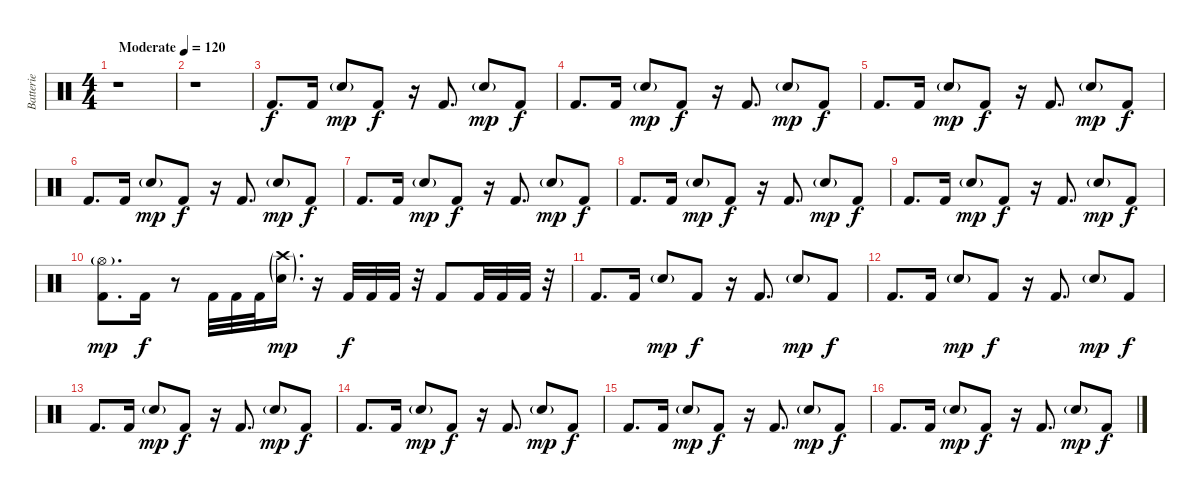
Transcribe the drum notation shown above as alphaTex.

\track ("Batterie" "Batterie") {instrument percussion}
\staff {score}
\articulation defaults
\ts (4 4)
\tempo (120 "Moderate")
\clef neutral
\ks c
r.1{dy f} |
r.1 |
"Kick (hit) 2".8{d} "Kick (hit) 2".16 "Electric Snare (hit)"{g}.8{dy mp} "Kick (hit) 2".8{dy f} r.16 "Kick (hit) 2".8{d} "Electric Snare (hit)"{g}.8{dy mp} "Kick (hit) 2".8{dy f} |
"Kick (hit) 2".8{d} "Kick (hit) 2".16 "Electric Snare (hit)"{g}.8{dy mp} "Kick (hit) 2".8{dy f} r.16 "Kick (hit) 2".8{d} "Electric Snare (hit)"{g}.8{dy mp} "Kick (hit) 2".8{dy f} |
"Kick (hit) 2".8{d} "Kick (hit) 2".16 "Electric Snare (hit)"{g}.8{dy mp} "Kick (hit) 2".8{dy f} r.16 "Kick (hit) 2".8{d} "Electric Snare (hit)"{g}.8{dy mp} "Kick (hit) 2".8{dy f} |
"Kick (hit) 2".8{d} "Kick (hit) 2".16 "Electric Snare (hit)"{g}.8{dy mp} "Kick (hit) 2".8{dy f} r.16 "Kick (hit) 2".8{d} "Electric Snare (hit)"{g}.8{dy mp} "Kick (hit) 2".8{dy f} |
"Kick (hit) 2".8{d} "Kick (hit) 2".16 "Electric Snare (hit)"{g}.8{dy mp} "Kick (hit) 2".8{dy f} r.16 "Kick (hit) 2".8{d} "Electric Snare (hit)"{g}.8{dy mp} "Kick (hit) 2".8{dy f} |
"Kick (hit) 2".8{d} "Kick (hit) 2".16 "Electric Snare (hit)"{g}.8{dy mp} "Kick (hit) 2".8{dy f} r.16 "Kick (hit) 2".8{d} "Electric Snare (hit)"{g}.8{dy mp} "Kick (hit) 2".8{dy f} |
"Kick (hit) 2".8{d} "Kick (hit) 2".16 "Electric Snare (hit)"{g}.8{dy mp} "Kick (hit) 2".8{dy f} r.16 "Kick (hit) 2".8{d} "Electric Snare (hit)"{g}.8{dy mp} "Kick (hit) 2".8{dy f} |
("Hi-Hat (open)"{g} "Kick (hit) 2").8{d dy mp} "Kick (hit) 2".16{dy f} r.8 "Kick (hit) 2".32 "Kick (hit) 2".32 "Kick (hit) 2".32 ("Crash high (hit)"{g} "Electric Snare (hit)"{g}).16{d dy mp} r.16 "Kick (hit) 2".32{dy f} "Kick (hit) 2".32 "Kick (hit) 2".32 r.32 "Kick (hit) 2".8 "Kick (hit) 2".32 "Kick (hit) 2".32 "Kick (hit) 2".32 r.32 |
"Kick (hit) 2".8{d} "Kick (hit) 2".16 "Electric Snare (hit)"{g}.8{dy mp} "Kick (hit) 2".8{dy f} r.16 "Kick (hit) 2".8{d} "Electric Snare (hit)"{g}.8{dy mp} "Kick (hit) 2".8{dy f} |
"Kick (hit) 2".8{d} "Kick (hit) 2".16 "Electric Snare (hit)"{g}.8{dy mp} "Kick (hit) 2".8{dy f} r.16 "Kick (hit) 2".8{d} "Electric Snare (hit)"{g}.8{dy mp} "Kick (hit) 2".8{dy f} |
"Kick (hit) 2".8{d} "Kick (hit) 2".16 "Electric Snare (hit)"{g}.8{dy mp} "Kick (hit) 2".8{dy f} r.16 "Kick (hit) 2".8{d} "Electric Snare (hit)"{g}.8{dy mp} "Kick (hit) 2".8{dy f} |
"Kick (hit) 2".8{d} "Kick (hit) 2".16 "Electric Snare (hit)"{g}.8{dy mp} "Kick (hit) 2".8{dy f} r.16 "Kick (hit) 2".8{d} "Electric Snare (hit)"{g}.8{dy mp} "Kick (hit) 2".8{dy f} |
"Kick (hit) 2".8{d} "Kick (hit) 2".16 "Electric Snare (hit)"{g}.8{dy mp} "Kick (hit) 2".8{dy f} r.16 "Kick (hit) 2".8{d} "Electric Snare (hit)"{g}.8{dy mp} "Kick (hit) 2".8{dy f} |
"Kick (hit) 2".8{d} "Kick (hit) 2".16 "Electric Snare (hit)"{g}.8{dy mp} "Kick (hit) 2".8{dy f} r.16 "Kick (hit) 2".8{d} "Electric Snare (hit)"{g}.8{dy mp} "Kick (hit) 2".8{dy f}
